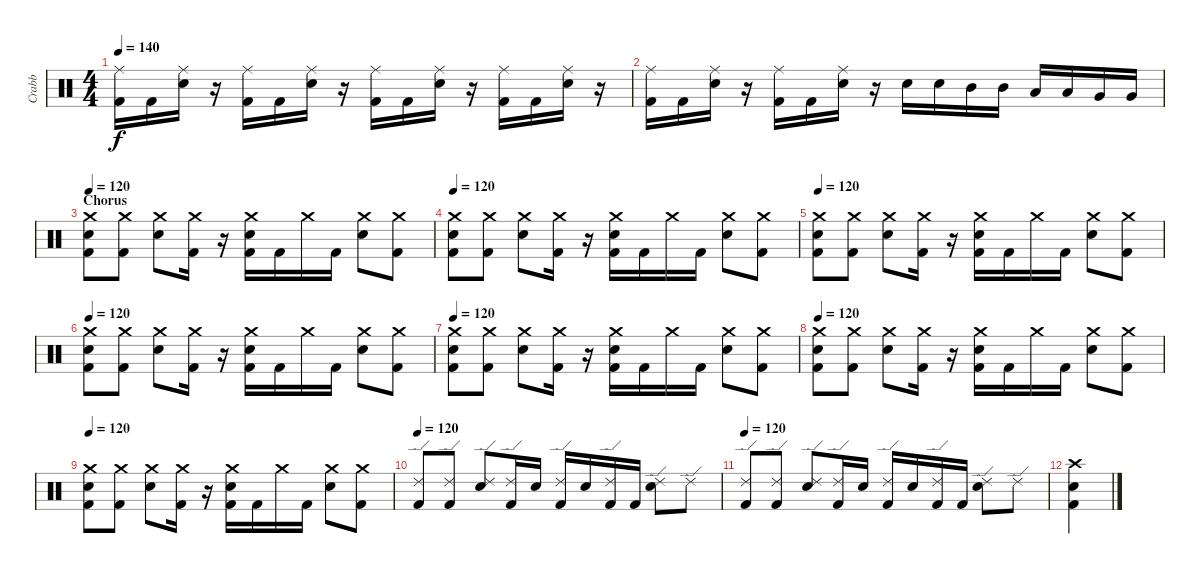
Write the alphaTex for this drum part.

\track ("Crabb" "Crabb") {instrument percussion}
\staff {score}
\articulation defaults
\ts (4 4)
\tempo 140
\clef neutral
\ks c
("Ride (middle)" "Kick (hit) 2").16{dy f} "Kick (hit) 2".16 ("Ride (middle)" "Electric Snare (hit)").16 r.16 ("Ride (middle)" "Kick (hit) 2").16 "Kick (hit) 2".16 ("Ride (middle)" "Electric Snare (hit)").16 r.16 ("Ride (middle)" "Kick (hit) 2").16 "Kick (hit) 2".16 ("Ride (middle)" "Electric Snare (hit)").16 r.16 ("Ride (middle)" "Kick (hit) 2").16 "Kick (hit) 2".16 ("Ride (middle)" "Electric Snare (hit)").16 r.16 |
("Ride (middle)" "Kick (hit) 2").16 "Kick (hit) 2".16 ("Ride (middle)" "Electric Snare (hit)").16 r.16 ("Ride (middle)" "Kick (hit) 2").16 "Kick (hit) 2".16 ("Ride (middle)" "Electric Snare (hit)").16 r.16 "Electric Snare (hit)".16 "Electric Snare (hit)".16 "Mid Tom (hit)".16 "Mid Tom (hit)".16 "Low Tom (hit)".16 "Low Tom (hit)".16 "Very Low Tom (hit)".16 "Very Low Tom (hit)".16 |
\section ("" "Chorus")
\tempo 140
\tempo 120
("Crash medium (hit)" "Kick (hit) 2" "Electric Snare (hit)").8 ("Crash medium (hit)" "Kick (hit) 2").8 ("Crash medium (hit)" "Electric Snare (hit)").8 ("Crash medium (hit)" "Kick (hit) 2").16 r.16 ("Crash medium (hit)" "Kick (hit) 2" "Electric Snare (hit)").16 "Kick (hit) 2".16 "Crash medium (hit)".16 "Kick (hit) 2".16 ("Crash medium (hit)" "Electric Snare (hit)").8 ("Crash medium (hit)" "Kick (hit) 2").8 |
\tempo 120
("Crash medium (hit)" "Kick (hit) 2" "Electric Snare (hit)").8 ("Crash medium (hit)" "Kick (hit) 2").8 ("Crash medium (hit)" "Electric Snare (hit)").8 ("Crash medium (hit)" "Kick (hit) 2").16 r.16 ("Crash medium (hit)" "Kick (hit) 2" "Electric Snare (hit)").16 "Kick (hit) 2".16 "Crash medium (hit)".16 "Kick (hit) 2".16 ("Crash medium (hit)" "Electric Snare (hit)").8 ("Crash medium (hit)" "Kick (hit) 2").8 |
\tempo 120
("Crash medium (hit)" "Kick (hit) 2" "Electric Snare (hit)").8 ("Crash medium (hit)" "Kick (hit) 2").8 ("Crash medium (hit)" "Electric Snare (hit)").8 ("Crash medium (hit)" "Kick (hit) 2").16 r.16 ("Crash medium (hit)" "Kick (hit) 2" "Electric Snare (hit)").16 "Kick (hit) 2".16 "Crash medium (hit)".16 "Kick (hit) 2".16 ("Crash medium (hit)" "Electric Snare (hit)").8 ("Crash medium (hit)" "Kick (hit) 2").8 |
\tempo 120
("Crash medium (hit)" "Kick (hit) 2" "Electric Snare (hit)").8 ("Crash medium (hit)" "Kick (hit) 2").8 ("Crash medium (hit)" "Electric Snare (hit)").8 ("Crash medium (hit)" "Kick (hit) 2").16 r.16 ("Crash medium (hit)" "Kick (hit) 2" "Electric Snare (hit)").16 "Kick (hit) 2".16 "Crash medium (hit)".16 "Kick (hit) 2".16 ("Crash medium (hit)" "Electric Snare (hit)").8 ("Crash medium (hit)" "Kick (hit) 2").8 |
\tempo 120
("Crash medium (hit)" "Kick (hit) 2" "Electric Snare (hit)").8 ("Crash medium (hit)" "Kick (hit) 2").8 ("Crash medium (hit)" "Electric Snare (hit)").8 ("Crash medium (hit)" "Kick (hit) 2").16 r.16 ("Crash medium (hit)" "Kick (hit) 2" "Electric Snare (hit)").16 "Kick (hit) 2".16 "Crash medium (hit)".16 "Kick (hit) 2".16 ("Crash medium (hit)" "Electric Snare (hit)").8 ("Crash medium (hit)" "Kick (hit) 2").8 |
\tempo 120
("Crash medium (hit)" "Kick (hit) 2" "Electric Snare (hit)").8 ("Crash medium (hit)" "Kick (hit) 2").8 ("Crash medium (hit)" "Electric Snare (hit)").8 ("Crash medium (hit)" "Kick (hit) 2").16 r.16 ("Crash medium (hit)" "Kick (hit) 2" "Electric Snare (hit)").16 "Kick (hit) 2".16 "Crash medium (hit)".16 "Kick (hit) 2".16 ("Crash medium (hit)" "Electric Snare (hit)").8 ("Crash medium (hit)" "Kick (hit) 2").8 |
\tempo 120
("Crash medium (hit)" "Kick (hit) 2" "Electric Snare (hit)").8 ("Crash medium (hit)" "Kick (hit) 2").8 ("Crash medium (hit)" "Electric Snare (hit)").8 ("Crash medium (hit)" "Kick (hit) 2").16 r.16 ("Crash medium (hit)" "Kick (hit) 2" "Electric Snare (hit)").16 "Kick (hit) 2".16 "Crash medium (hit)".16 "Kick (hit) 2".16 ("Crash medium (hit)" "Electric Snare (hit)").8 ("Crash medium (hit)" "Kick (hit) 2").8 |
\tempo 120
("Ride (edge) 2" "Kick (hit) 2").8 ("Ride (edge) 2" "Kick (hit) 2").8 ("Ride (edge) 2" "Electric Snare (hit)").8 ("Ride (edge) 2" "Kick (hit) 2").16 "Electric Snare (hit)".16 ("Ride (edge) 2" "Kick (hit) 2").16 "Electric Snare (hit)".16 ("Ride (edge) 2" "Kick (hit) 2").16 "Kick (hit) 2".16 ("Ride (edge) 2" "Electric Snare (hit)").8 "Ride (edge) 2".8 |
\tempo 120
("Ride (edge) 2" "Kick (hit) 2").8 ("Ride (edge) 2" "Kick (hit) 2").8 ("Ride (edge) 2" "Electric Snare (hit)").8 ("Ride (edge) 2" "Kick (hit) 2").16 "Electric Snare (hit)".16 ("Ride (edge) 2" "Kick (hit) 2").16 "Electric Snare (hit)".16 ("Ride (edge) 2" "Kick (hit) 2").16 "Kick (hit) 2".16 ("Ride (edge) 2" "Electric Snare (hit)").8 "Ride (edge) 2".8 |
("Crash high (hit)" "Electric Snare (hit)" "Kick (hit) 2").4
